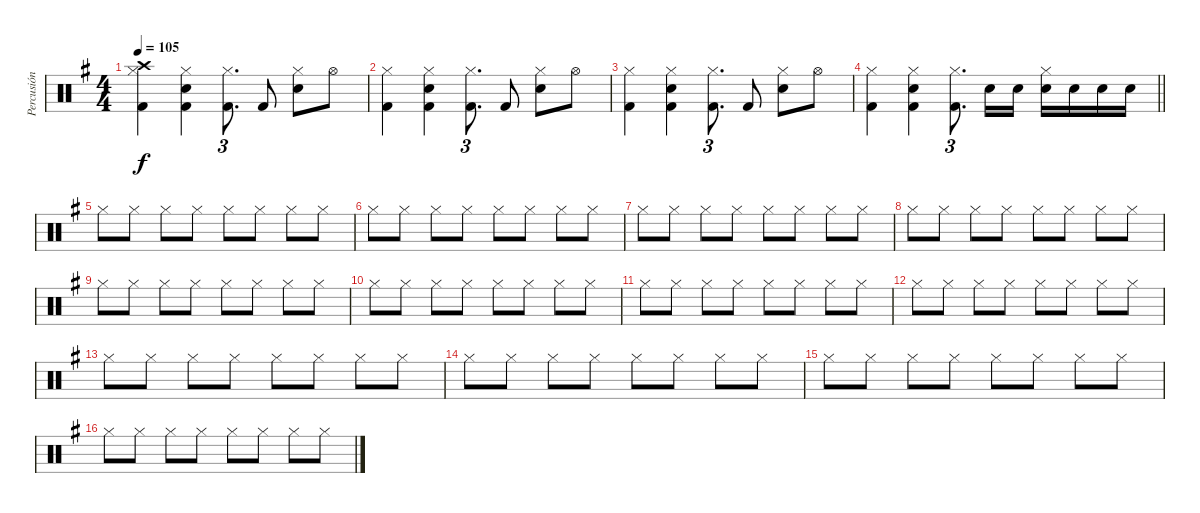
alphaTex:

\track ("Percusión" "Percusión") {instrument percussion}
\staff {score}
\articulation defaults
\ts (4 4)
\tempo 105
\clef neutral
\ks g
("Hi-Hat (closed)" "Kick (hit) 2" "Crash high (hit)").4{dy f} ("Hi-Hat (closed)" "Electric Snare (hit)" "Kick (hit) 2").4 ("Hi-Hat (closed)" "Kick (hit) 2").8{d tu (3 2)} "Kick (hit) 2".8 ("Hi-Hat (closed)" "Electric Snare (hit)").8 "Hi-Hat (open)".8 |
("Hi-Hat (closed)" "Kick (hit) 2").4 ("Hi-Hat (closed)" "Electric Snare (hit)" "Kick (hit) 2").4 ("Hi-Hat (closed)" "Kick (hit) 2").8{d tu (3 2)} "Kick (hit) 2".8 ("Hi-Hat (closed)" "Electric Snare (hit)").8 "Hi-Hat (open)".8 |
("Hi-Hat (closed)" "Kick (hit) 2").4 ("Hi-Hat (closed)" "Electric Snare (hit)" "Kick (hit) 2").4 ("Hi-Hat (closed)" "Kick (hit) 2").8{d tu (3 2)} "Kick (hit) 2".8 ("Hi-Hat (closed)" "Electric Snare (hit)").8 "Hi-Hat (open)".8 |
\barLineRight lightlight
("Hi-Hat (closed)" "Kick (hit) 2").4 ("Hi-Hat (closed)" "Electric Snare (hit)" "Kick (hit) 2").4 ("Hi-Hat (closed)" "Kick (hit) 2").8{d tu (3 2)} "Electric Snare (hit)".16 "Electric Snare (hit)".16 ("Hi-Hat (closed)" "Electric Snare (hit)").16 "Electric Snare (hit)".16 "Electric Snare (hit)".16 "Electric Snare (hit)".16 |
"Hi-Hat (closed)".8 "Hi-Hat (closed)".8 "Hi-Hat (closed)".8 "Hi-Hat (closed)".8 "Hi-Hat (closed)".8 "Hi-Hat (closed)".8 "Hi-Hat (closed)".8 "Hi-Hat (closed)".8 |
"Hi-Hat (closed)".8 "Hi-Hat (closed)".8 "Hi-Hat (closed)".8 "Hi-Hat (closed)".8 "Hi-Hat (closed)".8 "Hi-Hat (closed)".8 "Hi-Hat (closed)".8 "Hi-Hat (closed)".8 |
"Hi-Hat (closed)".8 "Hi-Hat (closed)".8 "Hi-Hat (closed)".8 "Hi-Hat (closed)".8 "Hi-Hat (closed)".8 "Hi-Hat (closed)".8 "Hi-Hat (closed)".8 "Hi-Hat (closed)".8 |
"Hi-Hat (closed)".8 "Hi-Hat (closed)".8 "Hi-Hat (closed)".8 "Hi-Hat (closed)".8 "Hi-Hat (closed)".8 "Hi-Hat (closed)".8 "Hi-Hat (closed)".8 "Hi-Hat (closed)".8 |
"Hi-Hat (closed)".8 "Hi-Hat (closed)".8 "Hi-Hat (closed)".8 "Hi-Hat (closed)".8 "Hi-Hat (closed)".8 "Hi-Hat (closed)".8 "Hi-Hat (closed)".8 "Hi-Hat (closed)".8 |
"Hi-Hat (closed)".8 "Hi-Hat (closed)".8 "Hi-Hat (closed)".8 "Hi-Hat (closed)".8 "Hi-Hat (closed)".8 "Hi-Hat (closed)".8 "Hi-Hat (closed)".8 "Hi-Hat (closed)".8 |
"Hi-Hat (closed)".8 "Hi-Hat (closed)".8 "Hi-Hat (closed)".8 "Hi-Hat (closed)".8 "Hi-Hat (closed)".8 "Hi-Hat (closed)".8 "Hi-Hat (closed)".8 "Hi-Hat (closed)".8 |
"Hi-Hat (closed)".8 "Hi-Hat (closed)".8 "Hi-Hat (closed)".8 "Hi-Hat (closed)".8 "Hi-Hat (closed)".8 "Hi-Hat (closed)".8 "Hi-Hat (closed)".8 "Hi-Hat (closed)".8 |
"Hi-Hat (closed)".8 "Hi-Hat (closed)".8 "Hi-Hat (closed)".8 "Hi-Hat (closed)".8 "Hi-Hat (closed)".8 "Hi-Hat (closed)".8 "Hi-Hat (closed)".8 "Hi-Hat (closed)".8 |
"Hi-Hat (closed)".8 "Hi-Hat (closed)".8 "Hi-Hat (closed)".8 "Hi-Hat (closed)".8 "Hi-Hat (closed)".8 "Hi-Hat (closed)".8 "Hi-Hat (closed)".8 "Hi-Hat (closed)".8 |
"Hi-Hat (closed)".8 "Hi-Hat (closed)".8 "Hi-Hat (closed)".8 "Hi-Hat (closed)".8 "Hi-Hat (closed)".8 "Hi-Hat (closed)".8 "Hi-Hat (closed)".8 "Hi-Hat (closed)".8 |
"Hi-Hat (closed)".8 "Hi-Hat (closed)".8 "Hi-Hat (closed)".8 "Hi-Hat (closed)".8 "Hi-Hat (closed)".8 "Hi-Hat (closed)".8 "Hi-Hat (closed)".8 "Hi-Hat (closed)".8
